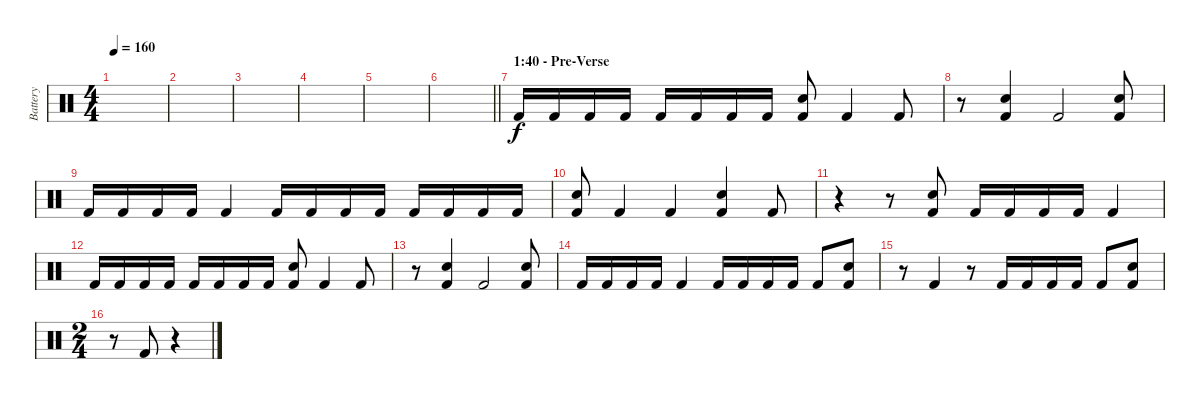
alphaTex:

\track ("Battery" "Battery") {instrument percussion}
\staff {score}
\articulation defaults
\ts (4 4)
\tempo 160
\clef neutral
\ks c
|
|
|
|
|
\barLineRight lightlight
|
\section ("" "1:40 - Pre-Verse")
"Kick (hit) 2".16 "Kick (hit) 2".16 "Kick (hit) 2".16 "Kick (hit) 2".16 "Kick (hit) 2".16 "Kick (hit) 2".16 "Kick (hit) 2".16 "Kick (hit) 2".16 ("Electric Snare (hit)" "Kick (hit) 2").8 "Kick (hit) 2".4 "Kick (hit) 2".8 |
r.8 ("Electric Snare (hit)" "Kick (hit) 2").4 "Kick (hit) 2".2 ("Electric Snare (hit)" "Kick (hit) 2").8 |
"Kick (hit) 2".16 "Kick (hit) 2".16 "Kick (hit) 2".16 "Kick (hit) 2".16 "Kick (hit) 2".4 "Kick (hit) 2".16 "Kick (hit) 2".16 "Kick (hit) 2".16 "Kick (hit) 2".16 "Kick (hit) 2".16 "Kick (hit) 2".16 "Kick (hit) 2".16 "Kick (hit) 2".16 |
("Electric Snare (hit)" "Kick (hit) 2").8 "Kick (hit) 2".4 "Kick (hit) 2".4 ("Electric Snare (hit)" "Kick (hit) 2").4 "Kick (hit) 2".8 |
r.4 r.8 ("Electric Snare (hit)" "Kick (hit) 2").8 "Kick (hit) 2".16 "Kick (hit) 2".16 "Kick (hit) 2".16 "Kick (hit) 2".16 "Kick (hit) 2".4 |
"Kick (hit) 2".16 "Kick (hit) 2".16 "Kick (hit) 2".16 "Kick (hit) 2".16 "Kick (hit) 2".16 "Kick (hit) 2".16 "Kick (hit) 2".16 "Kick (hit) 2".16 ("Electric Snare (hit)" "Kick (hit) 2").8 "Kick (hit) 2".4 "Kick (hit) 2".8 |
r.8 ("Electric Snare (hit)" "Kick (hit) 2").4 "Kick (hit) 2".2 ("Electric Snare (hit)" "Kick (hit) 2").8 |
"Kick (hit) 2".16 "Kick (hit) 2".16 "Kick (hit) 2".16 "Kick (hit) 2".16 "Kick (hit) 2".4 "Kick (hit) 2".16 "Kick (hit) 2".16 "Kick (hit) 2".16 "Kick (hit) 2".16 "Kick (hit) 2".8 ("Electric Snare (hit)" "Kick (hit) 2").8 |
r.8 "Kick (hit) 2".4 r.8 "Kick (hit) 2".16 "Kick (hit) 2".16 "Kick (hit) 2".16 "Kick (hit) 2".16 "Kick (hit) 2".8 ("Electric Snare (hit)" "Kick (hit) 2").8 |
\ts (2 4)
r.8 "Kick (hit) 2".8 r.4
